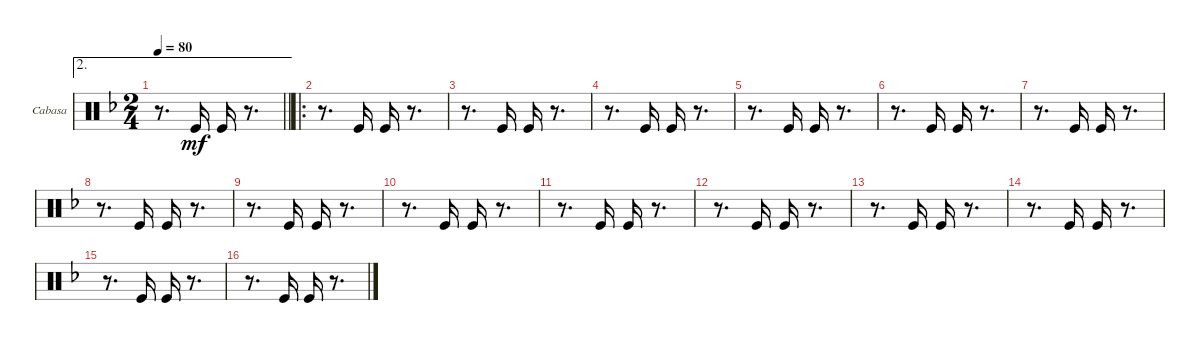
\defaultSystemsLayout 4
\bracketExtendMode groupsimilarinstruments
\firstSystemTrackNameOrientation horizontal
\otherSystemsTrackNameOrientation horizontal
\track ("Cabasa" "Cabasa") {instrument percussion}
\staff {score}
\articulation defaults
\ae 2
\ts (2 4)
\tempo 80
\clef neutral
\barLineRight lightlight
\ks f
r.8{d dy mf} "Kick (hit)".16 "Kick (hit)".16 r.8{d} |
\ro
r.8{d} "Kick (hit)".16 "Kick (hit)".16 r.8{d} |
r.8{d} "Kick (hit)".16 "Kick (hit)".16 r.8{d} |
r.8{d} "Kick (hit)".16 "Kick (hit)".16 r.8{d} |
\scale
0.250951 r.8{d} "Kick (hit)".16 "Kick (hit)".16 r.8{d} |
\scale
0.226718 r.8{d} "Kick (hit)".16 "Kick (hit)".16 r.8{d} |
\scale
0.237835 r.8{d} "Kick (hit)".16 "Kick (hit)".16 r.8{d} |
r.8{d} "Kick (hit)".16 "Kick (hit)".16 r.8{d} |
r.8{d} "Kick (hit)".16 "Kick (hit)".16 r.8{d} |
r.8{d} "Kick (hit)".16 "Kick (hit)".16 r.8{d} |
r.8{d} "Kick (hit)".16 "Kick (hit)".16 r.8{d} |
r.8{d} "Kick (hit)".16 "Kick (hit)".16 r.8{d} |
r.8{d} "Kick (hit)".16 "Kick (hit)".16 r.8{d} |
r.8{d} "Kick (hit)".16 "Kick (hit)".16 r.8{d} |
r.8{d} "Kick (hit)".16 "Kick (hit)".16 r.8{d} |
r.8{d} "Kick (hit)".16 "Kick (hit)".16 r.8{d}
